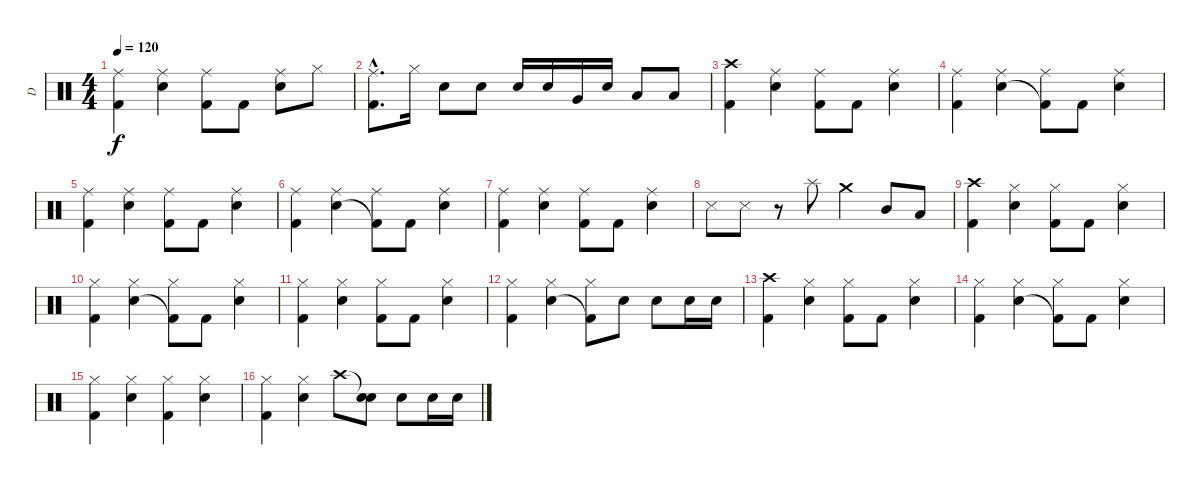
\track ("D" "D") {instrument percussion}
\staff {score}
\articulation defaults
\ts (4 4)
\tempo 120
\clef neutral
\ks c
("Ride (middle)" "Kick (hit) 2").4{dy f} ("Ride (middle)" "Snare (hit) 2").4 ("Ride (middle)" "Kick (hit) 2").8 "Kick (hit) 2".8 ("Ride (middle)" "Snare (hit) 2").8 "Hi-Hat (closed)".8 |
("Ride (middle)"{hac} "Kick (hit) 2"{hac}).8{d} "Hi-Hat (closed)".16 "Snare (hit) 2".8 "Snare (hit) 2".8 "Snare (hit) 2".16 "Snare (hit) 2".16 "Very Low Tom (hit)".16 "Snare (hit) 2".16 "Low Floor Tom (hit)".8 "Low Floor Tom (hit)".8 |
("Crash high (hit)" "Kick (hit) 2").4 ("Ride (middle)" "Snare (hit) 2").4 ("Ride (middle)" "Kick (hit) 2").8 "Kick (hit) 2".8 ("Ride (middle)" "Snare (hit) 2").4 |
("Ride (middle)" "Kick (hit) 2").4 ("Ride (middle)" "Snare (hit) 2").4 ("Ride (middle)" "Kick (hit) 2"{t}).8 "Kick (hit) 2".8 ("Ride (middle)" "Snare (hit) 2").4 |
("Ride (middle)" "Kick (hit) 2").4 ("Ride (middle)" "Snare (hit) 2").4 ("Ride (middle)" "Kick (hit) 2").8 "Kick (hit) 2".8 ("Ride (middle)" "Snare (hit) 2").4 |
("Ride (middle)" "Kick (hit) 2").4 ("Ride (middle)" "Snare (hit) 2").4 ("Ride (middle)" "Kick (hit) 2"{t}).8 "Kick (hit) 2".8 ("Ride (middle)" "Snare (hit) 2").4 |
("Ride (middle)" "Kick (hit) 2").4 ("Ride (middle)" "Snare (hit) 2").4 ("Ride (middle)" "Kick (hit) 2").8 "Kick (hit) 2".8 ("Ride (middle)" "Snare (hit) 2").4 |
"Snare (side stick) 3".8 "Snare (side stick) 3".8 r.8 "Splash (hit)".8 "Crash medium (hit)".4 "Mid Tom (hit)".8 "Low Tom (hit)".8 |
("Crash high (hit)" "Kick (hit) 2").4 ("Hi-Hat (closed)" "Snare (hit) 2").4 ("Hi-Hat (closed)" "Kick (hit) 2").8 "Kick (hit) 2".8 ("Hi-Hat (closed)" "Snare (hit) 2").4 |
("Hi-Hat (closed)" "Kick (hit) 2").4 ("Hi-Hat (closed)" "Snare (hit) 2").4 ("Hi-Hat (closed)" "Kick (hit) 2"{t}).8 "Kick (hit) 2".8 ("Hi-Hat (closed)" "Snare (hit) 2").4 |
("Hi-Hat (closed)" "Kick (hit) 2").4 ("Hi-Hat (closed)" "Snare (hit) 2").4 ("Hi-Hat (closed)" "Kick (hit) 2").8 "Kick (hit) 2".8 ("Hi-Hat (closed)" "Snare (hit) 2").4 |
("Hi-Hat (closed)" "Kick (hit) 2").4 ("Hi-Hat (closed)" "Snare (hit) 2").4 ("Hi-Hat (closed)" "Kick (hit) 2"{t}).8 "Snare (hit) 2".8 "Snare (hit) 2".8 "Snare (hit) 2".16 "Snare (hit) 2".16 |
("Crash high (hit)" "Kick (hit) 2").4 ("Hi-Hat (closed)" "Snare (hit) 2").4 ("Hi-Hat (closed)" "Kick (hit) 2").8 "Kick (hit) 2".8 ("Hi-Hat (closed)" "Snare (hit) 2").4 |
("Hi-Hat (closed)" "Kick (hit) 2").4 ("Hi-Hat (closed)" "Snare (hit) 2").4 ("Hi-Hat (closed)" "Kick (hit) 2"{t}).8 "Kick (hit) 2".8 ("Hi-Hat (closed)" "Snare (hit) 2").4 |
("Hi-Hat (closed)" "Kick (hit) 2").4 ("Hi-Hat (closed)" "Snare (hit) 2").4 ("Hi-Hat (closed)" "Kick (hit) 2").4 ("Hi-Hat (closed)" "Snare (hit) 2").4 |
("Hi-Hat (closed)" "Kick (hit) 2").4 ("Hi-Hat (closed)" "Snare (hit) 2").4 "Crash high (hit)".8 ("Snare (hit)"{t} "Snare (hit) 2").8 "Snare (hit) 2".8 "Snare (hit) 2".16 "Snare (hit) 2".16
